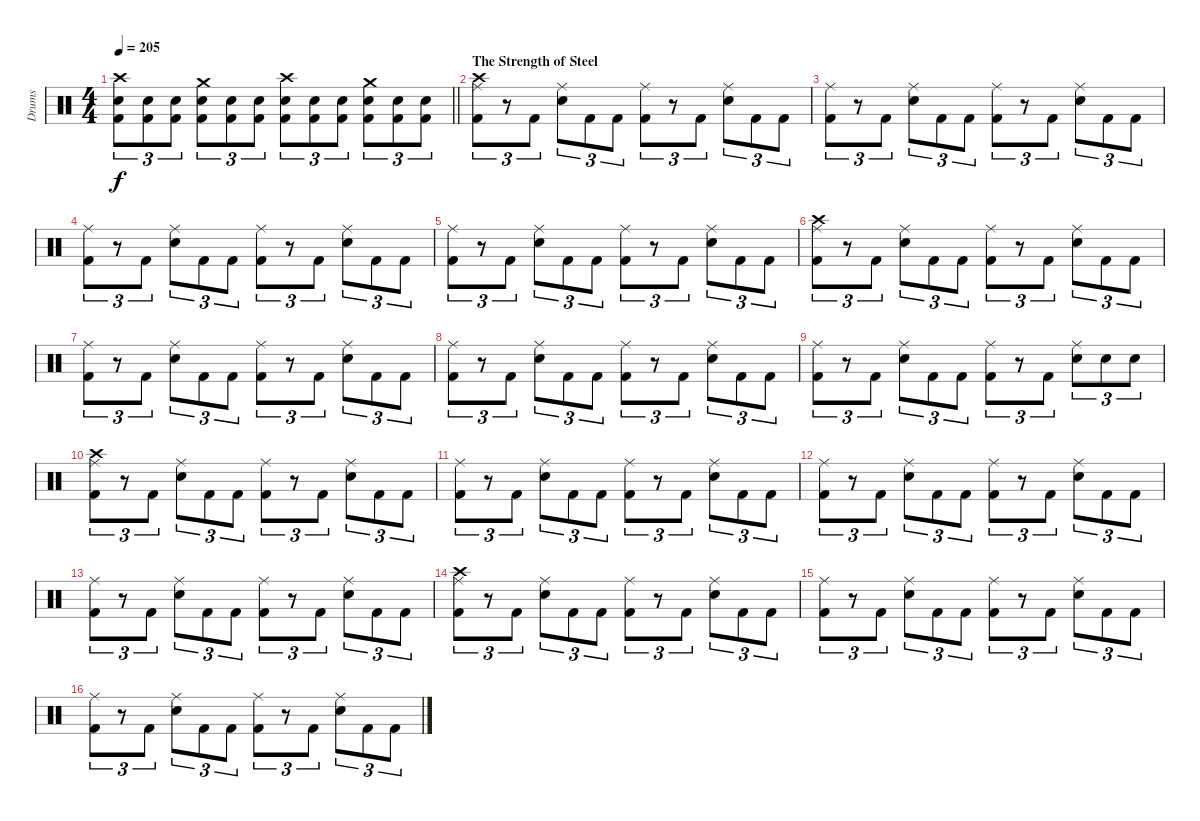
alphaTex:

\track ("Drums" "Drums") {instrument percussion}
\staff {score}
\articulation defaults
\ts (4 4)
\tempo 205
\clef neutral
\barLineRight lightlight
\ks c
("Crash high (hit)" "Snare (hit) 2" "Kick (hit) 2").8{tu (3 2) dy f} ("Snare (hit) 2" "Kick (hit) 2").8{tu (3 2)} ("Snare (hit) 2" "Kick (hit) 2").8{tu (3 2)} ("Crash medium (hit)" "Snare (hit) 2" "Kick (hit) 2").8{tu (3 2)} ("Snare (hit) 2" "Kick (hit) 2").8{tu (3 2)} ("Snare (hit) 2" "Kick (hit) 2").8{tu (3 2)} ("Crash high (hit)" "Snare (hit) 2" "Kick (hit) 2").8{tu (3 2)} ("Snare (hit) 2" "Kick (hit) 2").8{tu (3 2)} ("Snare (hit) 2" "Kick (hit) 2").8{tu (3 2)} ("Crash medium (hit)" "Snare (hit) 2" "Kick (hit) 2").8{tu (3 2)} ("Snare (hit) 2" "Kick (hit) 2").8{tu (3 2)} ("Snare (hit) 2" "Kick (hit) 2").8{tu (3 2)} |
\section ("" "The Strength of Steel")
("Crash high (hit)" "Ride (middle)" "Kick (hit) 2").8{tu (3 2)} r.8{tu (3 2)} "Kick (hit) 2".8{tu (3 2)} ("Ride (middle)" "Snare (hit) 2").8{tu (3 2)} "Kick (hit) 2".8{tu (3 2)} "Kick (hit) 2".8{tu (3 2)} ("Ride (middle)" "Kick (hit) 2").8{tu (3 2)} r.8{tu (3 2)} "Kick (hit) 2".8{tu (3 2)} ("Ride (middle)" "Snare (hit) 2").8{tu (3 2)} "Kick (hit) 2".8{tu (3 2)} "Kick (hit) 2".8{tu (3 2)} |
("Ride (middle)" "Kick (hit) 2").8{tu (3 2)} r.8{tu (3 2)} "Kick (hit) 2".8{tu (3 2)} ("Ride (middle)" "Snare (hit) 2").8{tu (3 2)} "Kick (hit) 2".8{tu (3 2)} "Kick (hit) 2".8{tu (3 2)} ("Ride (middle)" "Kick (hit) 2").8{tu (3 2)} r.8{tu (3 2)} "Kick (hit) 2".8{tu (3 2)} ("Ride (middle)" "Snare (hit) 2").8{tu (3 2)} "Kick (hit) 2".8{tu (3 2)} "Kick (hit) 2".8{tu (3 2)} |
("Ride (middle)" "Kick (hit) 2").8{tu (3 2)} r.8{tu (3 2)} "Kick (hit) 2".8{tu (3 2)} ("Ride (middle)" "Snare (hit) 2").8{tu (3 2)} "Kick (hit) 2".8{tu (3 2)} "Kick (hit) 2".8{tu (3 2)} ("Ride (middle)" "Kick (hit) 2").8{tu (3 2)} r.8{tu (3 2)} "Kick (hit) 2".8{tu (3 2)} ("Ride (middle)" "Snare (hit) 2").8{tu (3 2)} "Kick (hit) 2".8{tu (3 2)} "Kick (hit) 2".8{tu (3 2)} |
("Ride (middle)" "Kick (hit) 2").8{tu (3 2)} r.8{tu (3 2)} "Kick (hit) 2".8{tu (3 2)} ("Ride (middle)" "Snare (hit) 2").8{tu (3 2)} "Kick (hit) 2".8{tu (3 2)} "Kick (hit) 2".8{tu (3 2)} ("Ride (middle)" "Kick (hit) 2").8{tu (3 2)} r.8{tu (3 2)} "Kick (hit) 2".8{tu (3 2)} ("Ride (middle)" "Snare (hit) 2").8{tu (3 2)} "Kick (hit) 2".8{tu (3 2)} "Kick (hit) 2".8{tu (3 2)} |
("Crash high (hit)" "Ride (middle)" "Kick (hit) 2").8{tu (3 2)} r.8{tu (3 2)} "Kick (hit) 2".8{tu (3 2)} ("Ride (middle)" "Snare (hit) 2").8{tu (3 2)} "Kick (hit) 2".8{tu (3 2)} "Kick (hit) 2".8{tu (3 2)} ("Ride (middle)" "Kick (hit) 2").8{tu (3 2)} r.8{tu (3 2)} "Kick (hit) 2".8{tu (3 2)} ("Ride (middle)" "Snare (hit) 2").8{tu (3 2)} "Kick (hit) 2".8{tu (3 2)} "Kick (hit) 2".8{tu (3 2)} |
("Ride (middle)" "Kick (hit) 2").8{tu (3 2)} r.8{tu (3 2)} "Kick (hit) 2".8{tu (3 2)} ("Ride (middle)" "Snare (hit) 2").8{tu (3 2)} "Kick (hit) 2".8{tu (3 2)} "Kick (hit) 2".8{tu (3 2)} ("Ride (middle)" "Kick (hit) 2").8{tu (3 2)} r.8{tu (3 2)} "Kick (hit) 2".8{tu (3 2)} ("Ride (middle)" "Snare (hit) 2").8{tu (3 2)} "Kick (hit) 2".8{tu (3 2)} "Kick (hit) 2".8{tu (3 2)} |
("Ride (middle)" "Kick (hit) 2").8{tu (3 2)} r.8{tu (3 2)} "Kick (hit) 2".8{tu (3 2)} ("Ride (middle)" "Snare (hit) 2").8{tu (3 2)} "Kick (hit) 2".8{tu (3 2)} "Kick (hit) 2".8{tu (3 2)} ("Ride (middle)" "Kick (hit) 2").8{tu (3 2)} r.8{tu (3 2)} "Kick (hit) 2".8{tu (3 2)} ("Ride (middle)" "Snare (hit) 2").8{tu (3 2)} "Kick (hit) 2".8{tu (3 2)} "Kick (hit) 2".8{tu (3 2)} |
("Ride (middle)" "Kick (hit) 2").8{tu (3 2)} r.8{tu (3 2)} "Kick (hit) 2".8{tu (3 2)} ("Ride (middle)" "Snare (hit) 2").8{tu (3 2)} "Kick (hit) 2".8{tu (3 2)} "Kick (hit) 2".8{tu (3 2)} ("Ride (middle)" "Kick (hit) 2").8{tu (3 2)} r.8{tu (3 2)} "Kick (hit) 2".8{tu (3 2)} ("Ride (middle)" "Snare (hit) 2").8{tu (3 2)} "Snare (hit) 2".8{tu (3 2)} "Snare (hit) 2".8{tu (3 2)} |
("Crash high (hit)" "Ride (middle)" "Kick (hit) 2").8{tu (3 2)} r.8{tu (3 2)} "Kick (hit) 2".8{tu (3 2)} ("Ride (middle)" "Snare (hit) 2").8{tu (3 2)} "Kick (hit) 2".8{tu (3 2)} "Kick (hit) 2".8{tu (3 2)} ("Ride (middle)" "Kick (hit) 2").8{tu (3 2)} r.8{tu (3 2)} "Kick (hit) 2".8{tu (3 2)} ("Ride (middle)" "Snare (hit) 2").8{tu (3 2)} "Kick (hit) 2".8{tu (3 2)} "Kick (hit) 2".8{tu (3 2)} |
("Ride (middle)" "Kick (hit) 2").8{tu (3 2)} r.8{tu (3 2)} "Kick (hit) 2".8{tu (3 2)} ("Ride (middle)" "Snare (hit) 2").8{tu (3 2)} "Kick (hit) 2".8{tu (3 2)} "Kick (hit) 2".8{tu (3 2)} ("Ride (middle)" "Kick (hit) 2").8{tu (3 2)} r.8{tu (3 2)} "Kick (hit) 2".8{tu (3 2)} ("Ride (middle)" "Snare (hit) 2").8{tu (3 2)} "Kick (hit) 2".8{tu (3 2)} "Kick (hit) 2".8{tu (3 2)} |
("Ride (middle)" "Kick (hit) 2").8{tu (3 2)} r.8{tu (3 2)} "Kick (hit) 2".8{tu (3 2)} ("Ride (middle)" "Snare (hit) 2").8{tu (3 2)} "Kick (hit) 2".8{tu (3 2)} "Kick (hit) 2".8{tu (3 2)} ("Ride (middle)" "Kick (hit) 2").8{tu (3 2)} r.8{tu (3 2)} "Kick (hit) 2".8{tu (3 2)} ("Ride (middle)" "Snare (hit) 2").8{tu (3 2)} "Kick (hit) 2".8{tu (3 2)} "Kick (hit) 2".8{tu (3 2)} |
("Ride (middle)" "Kick (hit) 2").8{tu (3 2)} r.8{tu (3 2)} "Kick (hit) 2".8{tu (3 2)} ("Ride (middle)" "Snare (hit) 2").8{tu (3 2)} "Kick (hit) 2".8{tu (3 2)} "Kick (hit) 2".8{tu (3 2)} ("Ride (middle)" "Kick (hit) 2").8{tu (3 2)} r.8{tu (3 2)} "Kick (hit) 2".8{tu (3 2)} ("Ride (middle)" "Snare (hit) 2").8{tu (3 2)} "Kick (hit) 2".8{tu (3 2)} "Kick (hit) 2".8{tu (3 2)} |
("Crash high (hit)" "Ride (middle)" "Kick (hit) 2").8{tu (3 2)} r.8{tu (3 2)} "Kick (hit) 2".8{tu (3 2)} ("Ride (middle)" "Snare (hit) 2").8{tu (3 2)} "Kick (hit) 2".8{tu (3 2)} "Kick (hit) 2".8{tu (3 2)} ("Ride (middle)" "Kick (hit) 2").8{tu (3 2)} r.8{tu (3 2)} "Kick (hit) 2".8{tu (3 2)} ("Ride (middle)" "Snare (hit) 2").8{tu (3 2)} "Kick (hit) 2".8{tu (3 2)} "Kick (hit) 2".8{tu (3 2)} |
("Ride (middle)" "Kick (hit) 2").8{tu (3 2)} r.8{tu (3 2)} "Kick (hit) 2".8{tu (3 2)} ("Ride (middle)" "Snare (hit) 2").8{tu (3 2)} "Kick (hit) 2".8{tu (3 2)} "Kick (hit) 2".8{tu (3 2)} ("Ride (middle)" "Kick (hit) 2").8{tu (3 2)} r.8{tu (3 2)} "Kick (hit) 2".8{tu (3 2)} ("Ride (middle)" "Snare (hit) 2").8{tu (3 2)} "Kick (hit) 2".8{tu (3 2)} "Kick (hit) 2".8{tu (3 2)} |
("Ride (middle)" "Kick (hit) 2").8{tu (3 2)} r.8{tu (3 2)} "Kick (hit) 2".8{tu (3 2)} ("Ride (middle)" "Snare (hit) 2").8{tu (3 2)} "Kick (hit) 2".8{tu (3 2)} "Kick (hit) 2".8{tu (3 2)} ("Ride (middle)" "Kick (hit) 2").8{tu (3 2)} r.8{tu (3 2)} "Kick (hit) 2".8{tu (3 2)} ("Ride (middle)" "Snare (hit) 2").8{tu (3 2)} "Kick (hit) 2".8{tu (3 2)} "Kick (hit) 2".8{tu (3 2)}
